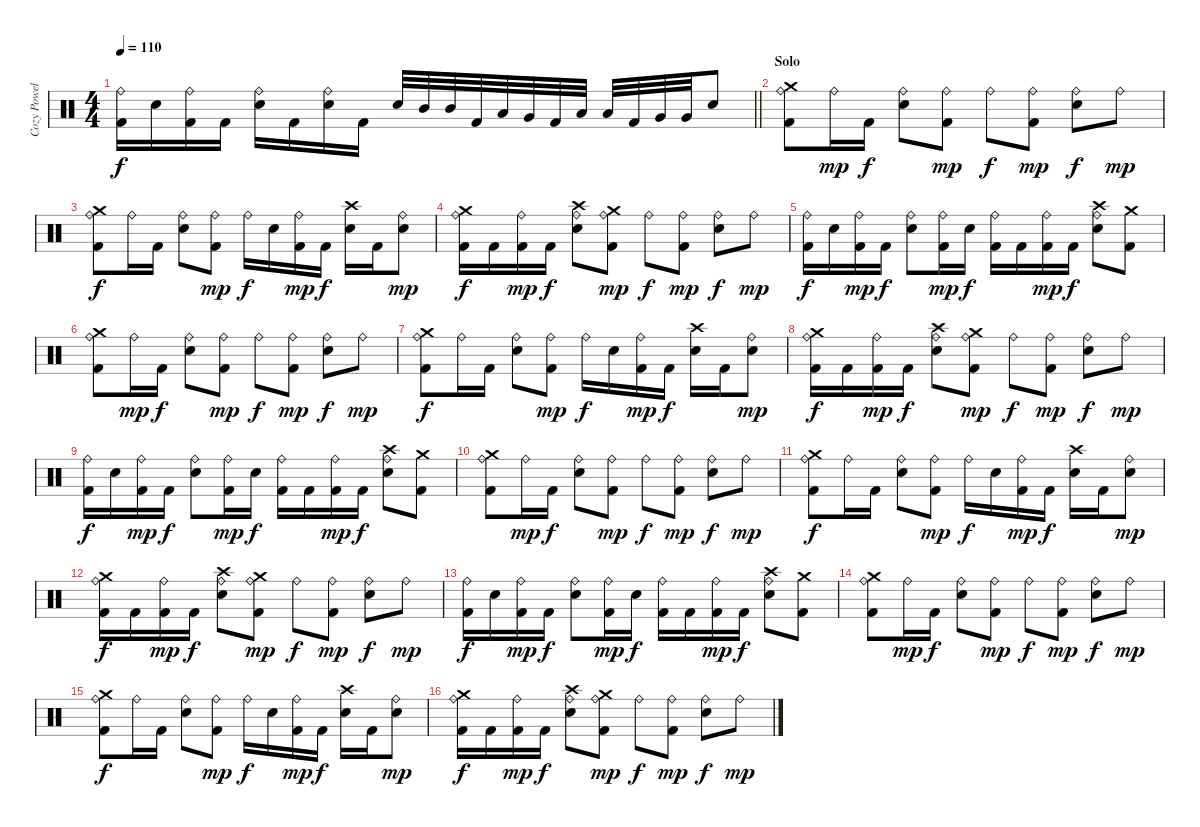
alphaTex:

\track ("Cozy Powell" "Cozy Powel") {instrument percussion}
\staff {score}
\articulation defaults
\ts (4 4)
\tempo 110
\clef neutral
\barLineRight lightlight
\ks c
("Ride (bell)" "Kick (hit) 2").16{dy f} "Snare (hit) 2".16 ("Ride (bell)" "Kick (hit) 2").16 "Kick (hit) 2".16 ("Ride (bell)" "Snare (hit) 2").16 "Kick (hit) 2".16 ("Ride (bell)" "Snare (hit) 2").16 "Kick (hit) 2".16 "Snare (hit) 2".32 "Mid Tom (hit)".32 "Mid Tom (hit)".32 "Kick (hit) 2".32 "Low Tom (hit)".32 "Very Low Tom (hit)".32 "Kick (hit) 2".32 "Low Tom (hit)".32 "Low Tom (hit)".32 "Kick (hit) 2".32 "Very Low Tom (hit)".32 "Very Low Tom (hit)".32 "Snare (hit) 2".8 |
\section ("" "Solo")
("Crash medium (hit)" "Ride (bell)" "Kick (hit) 2").8 "Ride (bell)".16{dy mp} "Kick (hit) 2".16{dy f} ("Ride (bell)" "Snare (hit) 2").8 ("Ride (bell)" "Kick (hit) 2").8{dy mp} "Ride (bell)".8{dy f} ("Ride (bell)" "Kick (hit) 2").8{dy mp} ("Ride (bell)" "Snare (hit) 2").8{dy f} "Ride (bell)".8{dy mp} |
("Crash medium (hit)" "Ride (bell)" "Kick (hit) 2").8{dy f} "Ride (bell)".16 "Kick (hit) 2".16 ("Ride (bell)" "Snare (hit) 2").8 ("Ride (bell)" "Kick (hit) 2").8{dy mp} "Ride (bell)".16{dy f} "Snare (hit) 2".16 ("Ride (bell)" "Kick (hit) 2").16{dy mp} "Kick (hit) 2".16{dy f} ("Crash high (hit)" "Snare (hit) 2").16 "Kick (hit) 2".16 ("Ride (bell)" "Snare (hit) 2").8{dy mp} |
("Crash medium (hit)" "Ride (bell)" "Kick (hit) 2").16{dy f} "Kick (hit) 2".16 ("Ride (bell)" "Kick (hit) 2").16{dy mp} "Kick (hit) 2".16{dy f} ("Crash high (hit)" "Ride (bell)" "Snare (hit) 2").8 ("Crash medium (hit)" "Ride (bell)" "Kick (hit) 2").8{dy mp} "Ride (bell)".8{dy f} ("Ride (bell)" "Kick (hit) 2").8{dy mp} ("Ride (bell)" "Snare (hit) 2").8{dy f} "Ride (bell)".8{dy mp} |
("Ride (bell)" "Kick (hit) 2").16{dy f} "Snare (hit) 2".16 ("Ride (bell)" "Kick (hit) 2").16{dy mp} "Kick (hit) 2".16{dy f} ("Ride (bell)" "Snare (hit) 2").8 ("Ride (bell)" "Kick (hit) 2").16{dy mp} "Snare (hit) 2".16{dy f} ("Ride (bell)" "Kick (hit) 2").16 "Kick (hit) 2".16 ("Ride (bell)" "Kick (hit) 2").16{dy mp} "Kick (hit) 2".16{dy f} ("Crash high (hit)" "Ride (bell)" "Snare (hit) 2").8 ("Crash medium (hit)" "Kick (hit) 2").8 |
("Crash medium (hit)" "Ride (bell)" "Kick (hit) 2").8 "Ride (bell)".16{dy mp} "Kick (hit) 2".16{dy f} ("Ride (bell)" "Snare (hit) 2").8 ("Ride (bell)" "Kick (hit) 2").8{dy mp} "Ride (bell)".8{dy f} ("Ride (bell)" "Kick (hit) 2").8{dy mp} ("Ride (bell)" "Snare (hit) 2").8{dy f} "Ride (bell)".8{dy mp} |
("Crash medium (hit)" "Ride (bell)" "Kick (hit) 2").8{dy f} "Ride (bell)".16 "Kick (hit) 2".16 ("Ride (bell)" "Snare (hit) 2").8 ("Ride (bell)" "Kick (hit) 2").8{dy mp} "Ride (bell)".16{dy f} "Snare (hit) 2".16 ("Ride (bell)" "Kick (hit) 2").16{dy mp} "Kick (hit) 2".16{dy f} ("Crash high (hit)" "Snare (hit) 2").16 "Kick (hit) 2".16 ("Ride (bell)" "Snare (hit) 2").8{dy mp} |
("Crash medium (hit)" "Ride (bell)" "Kick (hit) 2").16{dy f} "Kick (hit) 2".16 ("Ride (bell)" "Kick (hit) 2").16{dy mp} "Kick (hit) 2".16{dy f} ("Crash high (hit)" "Ride (bell)" "Snare (hit) 2").8 ("Crash medium (hit)" "Ride (bell)" "Kick (hit) 2").8{dy mp} "Ride (bell)".8{dy f} ("Ride (bell)" "Kick (hit) 2").8{dy mp} ("Ride (bell)" "Snare (hit) 2").8{dy f} "Ride (bell)".8{dy mp} |
("Ride (bell)" "Kick (hit) 2").16{dy f} "Snare (hit) 2".16 ("Ride (bell)" "Kick (hit) 2").16{dy mp} "Kick (hit) 2".16{dy f} ("Ride (bell)" "Snare (hit) 2").8 ("Ride (bell)" "Kick (hit) 2").16{dy mp} "Snare (hit) 2".16{dy f} ("Ride (bell)" "Kick (hit) 2").16 "Kick (hit) 2".16 ("Ride (bell)" "Kick (hit) 2").16{dy mp} "Kick (hit) 2".16{dy f} ("Crash high (hit)" "Ride (bell)" "Snare (hit) 2").8 ("Crash medium (hit)" "Kick (hit) 2").8 |
("Crash medium (hit)" "Ride (bell)" "Kick (hit) 2").8 "Ride (bell)".16{dy mp} "Kick (hit) 2".16{dy f} ("Ride (bell)" "Snare (hit) 2").8 ("Ride (bell)" "Kick (hit) 2").8{dy mp} "Ride (bell)".8{dy f} ("Ride (bell)" "Kick (hit) 2").8{dy mp} ("Ride (bell)" "Snare (hit) 2").8{dy f} "Ride (bell)".8{dy mp} |
("Crash medium (hit)" "Ride (bell)" "Kick (hit) 2").8{dy f} "Ride (bell)".16 "Kick (hit) 2".16 ("Ride (bell)" "Snare (hit) 2").8 ("Ride (bell)" "Kick (hit) 2").8{dy mp} "Ride (bell)".16{dy f} "Snare (hit) 2".16 ("Ride (bell)" "Kick (hit) 2").16{dy mp} "Kick (hit) 2".16{dy f} ("Crash high (hit)" "Snare (hit) 2").16 "Kick (hit) 2".16 ("Ride (bell)" "Snare (hit) 2").8{dy mp} |
("Crash medium (hit)" "Ride (bell)" "Kick (hit) 2").16{dy f} "Kick (hit) 2".16 ("Ride (bell)" "Kick (hit) 2").16{dy mp} "Kick (hit) 2".16{dy f} ("Crash high (hit)" "Ride (bell)" "Snare (hit) 2").8 ("Crash medium (hit)" "Ride (bell)" "Kick (hit) 2").8{dy mp} "Ride (bell)".8{dy f} ("Ride (bell)" "Kick (hit) 2").8{dy mp} ("Ride (bell)" "Snare (hit) 2").8{dy f} "Ride (bell)".8{dy mp} |
("Ride (bell)" "Kick (hit) 2").16{dy f} "Snare (hit) 2".16 ("Ride (bell)" "Kick (hit) 2").16{dy mp} "Kick (hit) 2".16{dy f} ("Ride (bell)" "Snare (hit) 2").8 ("Ride (bell)" "Kick (hit) 2").16{dy mp} "Snare (hit) 2".16{dy f} ("Ride (bell)" "Kick (hit) 2").16 "Kick (hit) 2".16 ("Ride (bell)" "Kick (hit) 2").16{dy mp} "Kick (hit) 2".16{dy f} ("Crash high (hit)" "Ride (bell)" "Snare (hit) 2").8 ("Crash medium (hit)" "Kick (hit) 2").8 |
("Crash medium (hit)" "Ride (bell)" "Kick (hit) 2").8 "Ride (bell)".16{dy mp} "Kick (hit) 2".16{dy f} ("Ride (bell)" "Snare (hit) 2").8 ("Ride (bell)" "Kick (hit) 2").8{dy mp} "Ride (bell)".8{dy f} ("Ride (bell)" "Kick (hit) 2").8{dy mp} ("Ride (bell)" "Snare (hit) 2").8{dy f} "Ride (bell)".8{dy mp} |
("Crash medium (hit)" "Ride (bell)" "Kick (hit) 2").8{dy f} "Ride (bell)".16 "Kick (hit) 2".16 ("Ride (bell)" "Snare (hit) 2").8 ("Ride (bell)" "Kick (hit) 2").8{dy mp} "Ride (bell)".16{dy f} "Snare (hit) 2".16 ("Ride (bell)" "Kick (hit) 2").16{dy mp} "Kick (hit) 2".16{dy f} ("Crash high (hit)" "Snare (hit) 2").16 "Kick (hit) 2".16 ("Ride (bell)" "Snare (hit) 2").8{dy mp} |
("Crash medium (hit)" "Ride (bell)" "Kick (hit) 2").16{dy f} "Kick (hit) 2".16 ("Ride (bell)" "Kick (hit) 2").16{dy mp} "Kick (hit) 2".16{dy f} ("Crash high (hit)" "Ride (bell)" "Snare (hit) 2").8 ("Crash medium (hit)" "Ride (bell)" "Kick (hit) 2").8{dy mp} "Ride (bell)".8{dy f} ("Ride (bell)" "Kick (hit) 2").8{dy mp} ("Ride (bell)" "Snare (hit) 2").8{dy f} "Ride (bell)".8{dy mp}
